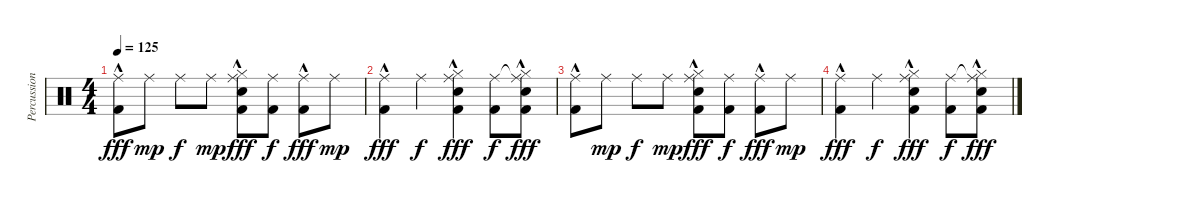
\track ("Percussion" "Percussion") {instrument percussion}
\staff {score}
\articulation defaults
\ts (4 4)
\tempo 125
\clef neutral
\ks c
("Ride (middle)" "Kick (hit) 2"{hac}).8{dy fff} "Ride (middle)".8{dy mp} "Ride (middle)".8{dy f} "Ride (middle)".8{dy mp} ("Ride (middle)" "Hi-Hat (closed)" "Electric Snare (hit)" "Kick (hit) 2"{hac}).8{dy fff} ("Ride (middle)" "Kick (hit) 2").8{dy f} ("Ride (middle)" "Kick (hit) 2"{hac}).8{dy fff} "Ride (middle)".8{dy mp} |
("Ride (middle)" "Kick (hit) 2"{hac}).4{dy fff} "Ride (middle)".4{dy f} ("Ride (middle)" "Hi-Hat (closed)" "Electric Snare (hit)" "Kick (hit) 2"{hac}).4{dy fff} ("Ride (middle)" "Kick (hit) 2").8{dy f} ("Ride (middle)"{t} "Hi-Hat (closed)" "Electric Snare (hit)" "Kick (hit) 2"{hac}).8{dy fff} |
("Ride (middle)" "Kick (hit) 2"{hac}).8 "Ride (middle)".8{dy mp} "Ride (middle)".8{dy f} "Ride (middle)".8{dy mp} ("Ride (middle)" "Hi-Hat (closed)" "Electric Snare (hit)" "Kick (hit) 2"{hac}).8{dy fff} ("Ride (middle)" "Kick (hit) 2").8{dy f} ("Ride (middle)" "Kick (hit) 2"{hac}).8{dy fff} "Ride (middle)".8{dy mp} |
("Ride (middle)" "Kick (hit) 2"{hac}).4{dy fff} "Ride (middle)".4{dy f} ("Ride (middle)" "Hi-Hat (closed)" "Electric Snare (hit)" "Kick (hit) 2"{hac}).4{dy fff} ("Ride (middle)" "Kick (hit) 2").8{dy f} ("Ride (middle)"{t} "Hi-Hat (closed)" "Electric Snare (hit)" "Kick (hit) 2"{hac}).8{dy fff}
